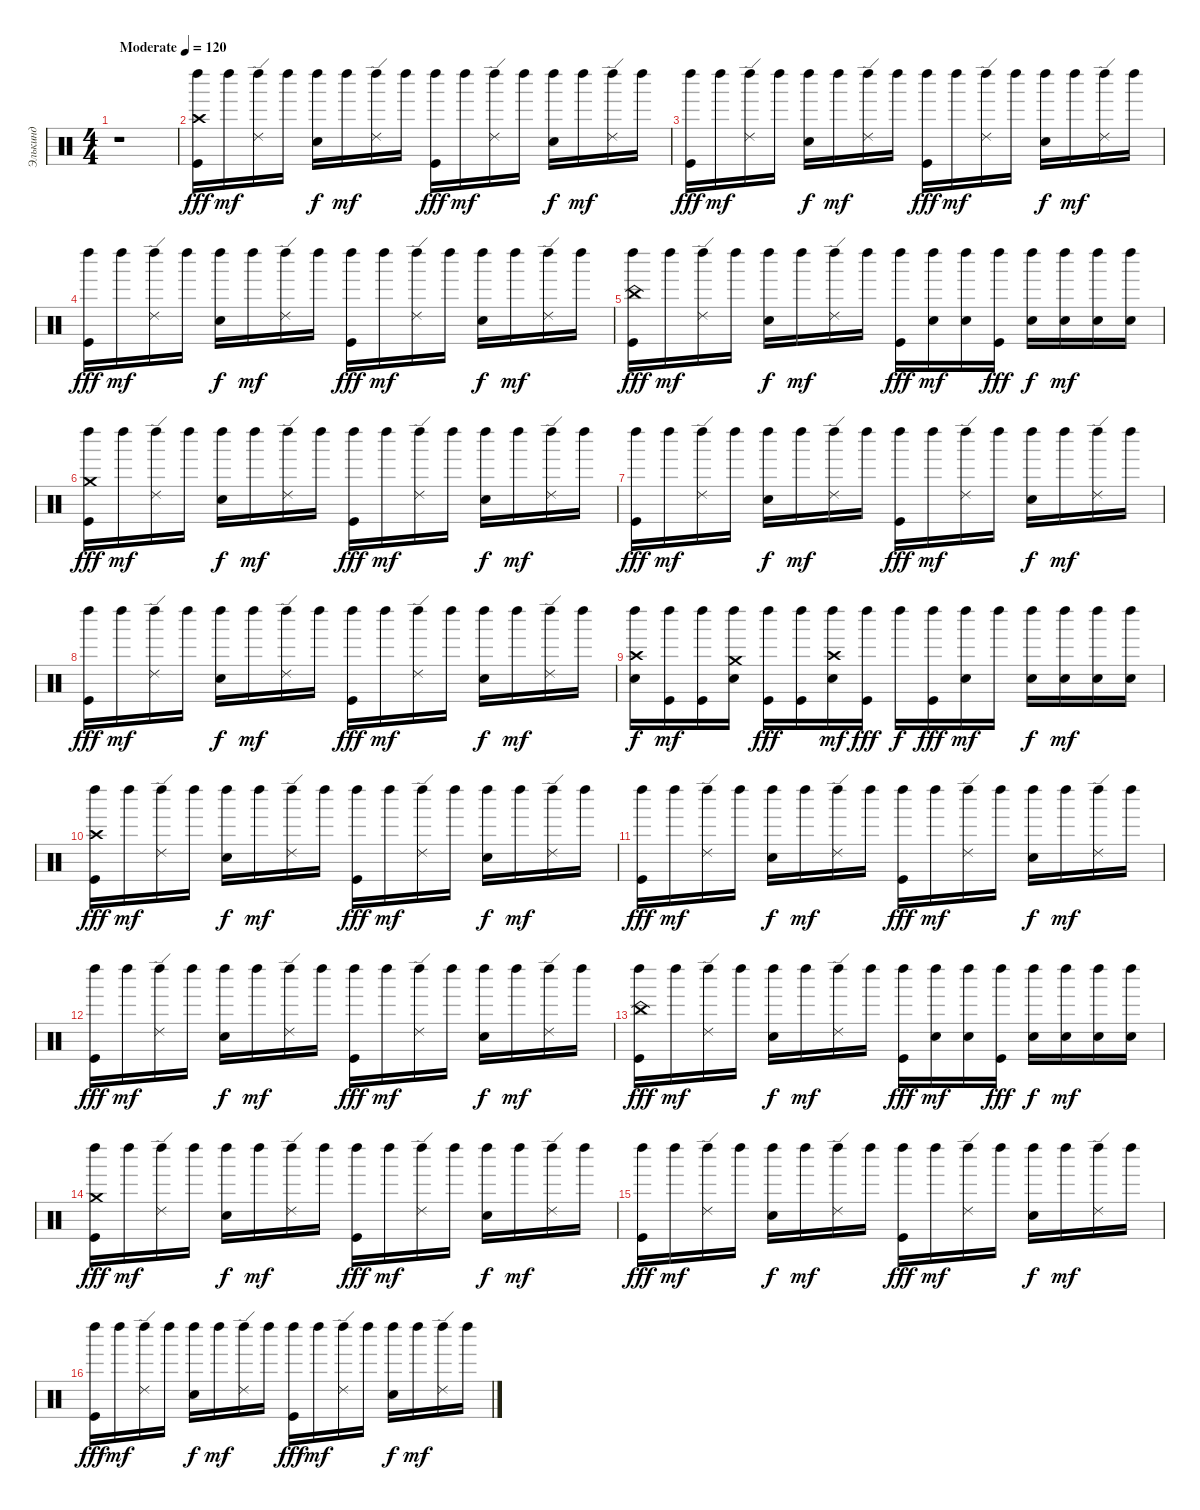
\track ("Элькинд" "Элькинд") {instrument percussion}
\staff {score}
\articulation defaults
\ts (4 4)
\tempo (120 "Moderate")
\clef neutral
\ks c
r.1{dy fff} |
("Left Maraca (hit)" "Crash high (hit)" "Kick (hit)").16 "Left Maraca (hit)".16{dy mf} ("Left Maraca (hit)" "Ride (edge) 2").16 "Left Maraca (hit)".16 ("Left Maraca (hit)" "Electric Snare (hit)").16{dy f} "Left Maraca (hit)".16{dy mf} ("Left Maraca (hit)" "Ride (edge) 2").16 "Left Maraca (hit)".16 ("Left Maraca (hit)" "Kick (hit)").16{dy fff} "Left Maraca (hit)".16{dy mf} ("Left Maraca (hit)" "Ride (edge) 2").16 "Left Maraca (hit)".16 ("Left Maraca (hit)" "Electric Snare (hit)").16{dy f} "Left Maraca (hit)".16{dy mf} ("Left Maraca (hit)" "Ride (edge) 2").16 "Left Maraca (hit)".16 |
("Left Maraca (hit)" "Kick (hit)").16{dy fff} "Left Maraca (hit)".16{dy mf} ("Left Maraca (hit)" "Ride (edge) 2").16 "Left Maraca (hit)".16 ("Left Maraca (hit)" "Electric Snare (hit)").16{dy f} "Left Maraca (hit)".16{dy mf} ("Left Maraca (hit)" "Ride (edge) 2").16 "Left Maraca (hit)".16 ("Left Maraca (hit)" "Kick (hit)").16{dy fff} "Left Maraca (hit)".16{dy mf} ("Left Maraca (hit)" "Ride (edge) 2").16 "Left Maraca (hit)".16 ("Left Maraca (hit)" "Electric Snare (hit)").16{dy f} "Left Maraca (hit)".16{dy mf} ("Left Maraca (hit)" "Ride (edge) 2").16 "Left Maraca (hit)".16 |
("Left Maraca (hit)" "Kick (hit)").16{dy fff} "Left Maraca (hit)".16{dy mf} ("Left Maraca (hit)" "Ride (edge) 2").16 "Left Maraca (hit)".16 ("Left Maraca (hit)" "Electric Snare (hit)").16{dy f} "Left Maraca (hit)".16{dy mf} ("Left Maraca (hit)" "Ride (edge) 2").16 "Left Maraca (hit)".16 ("Left Maraca (hit)" "Kick (hit)").16{dy fff} "Left Maraca (hit)".16{dy mf} ("Left Maraca (hit)" "Ride (edge) 2").16 "Left Maraca (hit)".16 ("Left Maraca (hit)" "Electric Snare (hit)").16{dy f} "Left Maraca (hit)".16{dy mf} ("Left Maraca (hit)" "Ride (edge) 2").16 "Left Maraca (hit)".16 |
("Kick (hit)" "China (hit)" "Left Maraca (hit)").16{dy fff} "Left Maraca (hit)".16{dy mf} ("Left Maraca (hit)" "Ride (edge) 2").16 "Left Maraca (hit)".16 ("Electric Snare (hit)" "Left Maraca (hit)").16{dy f} "Left Maraca (hit)".16{dy mf} ("Ride (edge) 2" "Left Maraca (hit)").16 "Left Maraca (hit)".16 ("Left Maraca (hit)" "Kick (hit)").16{dy fff} ("Electric Snare (hit)" "Left Maraca (hit)").16{dy mf} ("Left Maraca (hit)" "Electric Snare (hit)").16 ("Left Maraca (hit)" "Kick (hit)").16{dy fff} ("Electric Snare (hit)" "Left Maraca (hit)").16{dy f} ("Left Maraca (hit)" "Electric Snare (hit)").16{dy mf} ("Left Maraca (hit)" "Electric Snare (hit)").16 ("Electric Snare (hit)" "Left Maraca (hit)").16 |
("Left Maraca (hit)" "Crash medium (hit)" "Kick (hit)").16{dy fff} "Left Maraca (hit)".16{dy mf} ("Left Maraca (hit)" "Ride (edge) 2").16 "Left Maraca (hit)".16 ("Left Maraca (hit)" "Electric Snare (hit)").16{dy f} "Left Maraca (hit)".16{dy mf} ("Left Maraca (hit)" "Ride (edge) 2").16 "Left Maraca (hit)".16 ("Left Maraca (hit)" "Kick (hit)").16{dy fff} "Left Maraca (hit)".16{dy mf} ("Left Maraca (hit)" "Ride (edge) 2").16 "Left Maraca (hit)".16 ("Left Maraca (hit)" "Electric Snare (hit)").16{dy f} "Left Maraca (hit)".16{dy mf} ("Left Maraca (hit)" "Ride (edge) 2").16 "Left Maraca (hit)".16 |
("Left Maraca (hit)" "Kick (hit)").16{dy fff} "Left Maraca (hit)".16{dy mf} ("Left Maraca (hit)" "Ride (edge) 2").16 "Left Maraca (hit)".16 ("Left Maraca (hit)" "Electric Snare (hit)").16{dy f} "Left Maraca (hit)".16{dy mf} ("Left Maraca (hit)" "Ride (edge) 2").16 "Left Maraca (hit)".16 ("Left Maraca (hit)" "Kick (hit)").16{dy fff} "Left Maraca (hit)".16{dy mf} ("Left Maraca (hit)" "Ride (edge) 2").16 "Left Maraca (hit)".16 ("Left Maraca (hit)" "Electric Snare (hit)").16{dy f} "Left Maraca (hit)".16{dy mf} ("Left Maraca (hit)" "Ride (edge) 2").16 "Left Maraca (hit)".16 |
("Left Maraca (hit)" "Kick (hit)").16{dy fff} "Left Maraca (hit)".16{dy mf} ("Left Maraca (hit)" "Ride (edge) 2").16 "Left Maraca (hit)".16 ("Left Maraca (hit)" "Electric Snare (hit)").16{dy f} "Left Maraca (hit)".16{dy mf} ("Left Maraca (hit)" "Ride (edge) 2").16 "Left Maraca (hit)".16 ("Left Maraca (hit)" "Kick (hit)").16{dy fff} "Left Maraca (hit)".16{dy mf} ("Left Maraca (hit)" "Ride (edge) 2").16 "Left Maraca (hit)".16 ("Left Maraca (hit)" "Electric Snare (hit)").16{dy f} "Left Maraca (hit)".16{dy mf} ("Left Maraca (hit)" "Ride (edge) 2").16 "Left Maraca (hit)".16 |
("Crash high (hit)" "Electric Snare (hit)" "Left Maraca (hit)").16{dy f} ("Kick (hit)" "Left Maraca (hit)").16{dy mf} ("Kick (hit)" "Left Maraca (hit)").16 ("Left Maraca (hit)" "Crash medium (hit)" "Electric Snare (hit)").16 ("Kick (hit)" "Left Maraca (hit)").16{dy fff} ("Left Maraca (hit)" "Kick (hit)").16 ("Left Maraca (hit)" "Crash high (hit)" "Electric Snare (hit)").16{dy mf} ("Left Maraca (hit)" "Kick (hit)").16{dy fff} "Left Maraca (hit)".16{dy f} ("Left Maraca (hit)" "Kick (hit)").16{dy fff} ("Electric Snare (hit)" "Left Maraca (hit)").16{dy mf} "Left Maraca (hit)".16 ("Left Maraca (hit)" "Electric Snare (hit)").16{dy f} ("Electric Snare (hit)" "Left Maraca (hit)").16{dy mf} ("Electric Snare (hit)" "Left Maraca (hit)").16 ("Electric Snare (hit)" "Left Maraca (hit)").16 |
("Left Maraca (hit)" "Crash high (hit)" "Kick (hit)").16{dy fff} "Left Maraca (hit)".16{dy mf} ("Left Maraca (hit)" "Ride (edge) 2").16 "Left Maraca (hit)".16 ("Left Maraca (hit)" "Electric Snare (hit)").16{dy f} "Left Maraca (hit)".16{dy mf} ("Left Maraca (hit)" "Ride (edge) 2").16 "Left Maraca (hit)".16 ("Left Maraca (hit)" "Kick (hit)").16{dy fff} "Left Maraca (hit)".16{dy mf} ("Left Maraca (hit)" "Ride (edge) 2").16 "Left Maraca (hit)".16 ("Left Maraca (hit)" "Electric Snare (hit)").16{dy f} "Left Maraca (hit)".16{dy mf} ("Left Maraca (hit)" "Ride (edge) 2").16 "Left Maraca (hit)".16 |
("Left Maraca (hit)" "Kick (hit)").16{dy fff} "Left Maraca (hit)".16{dy mf} ("Left Maraca (hit)" "Ride (edge) 2").16 "Left Maraca (hit)".16 ("Left Maraca (hit)" "Electric Snare (hit)").16{dy f} "Left Maraca (hit)".16{dy mf} ("Left Maraca (hit)" "Ride (edge) 2").16 "Left Maraca (hit)".16 ("Left Maraca (hit)" "Kick (hit)").16{dy fff} "Left Maraca (hit)".16{dy mf} ("Left Maraca (hit)" "Ride (edge) 2").16 "Left Maraca (hit)".16 ("Left Maraca (hit)" "Electric Snare (hit)").16{dy f} "Left Maraca (hit)".16{dy mf} ("Left Maraca (hit)" "Ride (edge) 2").16 "Left Maraca (hit)".16 |
("Left Maraca (hit)" "Kick (hit)").16{dy fff} "Left Maraca (hit)".16{dy mf} ("Left Maraca (hit)" "Ride (edge) 2").16 "Left Maraca (hit)".16 ("Left Maraca (hit)" "Electric Snare (hit)").16{dy f} "Left Maraca (hit)".16{dy mf} ("Left Maraca (hit)" "Ride (edge) 2").16 "Left Maraca (hit)".16 ("Left Maraca (hit)" "Kick (hit)").16{dy fff} "Left Maraca (hit)".16{dy mf} ("Left Maraca (hit)" "Ride (edge) 2").16 "Left Maraca (hit)".16 ("Left Maraca (hit)" "Electric Snare (hit)").16{dy f} "Left Maraca (hit)".16{dy mf} ("Left Maraca (hit)" "Ride (edge) 2").16 "Left Maraca (hit)".16 |
("Kick (hit)" "China (hit)" "Left Maraca (hit)").16{dy fff} "Left Maraca (hit)".16{dy mf} ("Left Maraca (hit)" "Ride (edge) 2").16 "Left Maraca (hit)".16 ("Electric Snare (hit)" "Left Maraca (hit)").16{dy f} "Left Maraca (hit)".16{dy mf} ("Ride (edge) 2" "Left Maraca (hit)").16 "Left Maraca (hit)".16 ("Left Maraca (hit)" "Kick (hit)").16{dy fff} ("Electric Snare (hit)" "Left Maraca (hit)").16{dy mf} ("Left Maraca (hit)" "Electric Snare (hit)").16 ("Left Maraca (hit)" "Kick (hit)").16{dy fff} ("Electric Snare (hit)" "Left Maraca (hit)").16{dy f} ("Left Maraca (hit)" "Electric Snare (hit)").16{dy mf} ("Left Maraca (hit)" "Electric Snare (hit)").16 ("Electric Snare (hit)" "Left Maraca (hit)").16 |
("Left Maraca (hit)" "Crash medium (hit)" "Kick (hit)").16{dy fff} "Left Maraca (hit)".16{dy mf} ("Left Maraca (hit)" "Ride (edge) 2").16 "Left Maraca (hit)".16 ("Left Maraca (hit)" "Electric Snare (hit)").16{dy f} "Left Maraca (hit)".16{dy mf} ("Left Maraca (hit)" "Ride (edge) 2").16 "Left Maraca (hit)".16 ("Left Maraca (hit)" "Kick (hit)").16{dy fff} "Left Maraca (hit)".16{dy mf} ("Left Maraca (hit)" "Ride (edge) 2").16 "Left Maraca (hit)".16 ("Left Maraca (hit)" "Electric Snare (hit)").16{dy f} "Left Maraca (hit)".16{dy mf} ("Left Maraca (hit)" "Ride (edge) 2").16 "Left Maraca (hit)".16 |
("Left Maraca (hit)" "Kick (hit)").16{dy fff} "Left Maraca (hit)".16{dy mf} ("Left Maraca (hit)" "Ride (edge) 2").16 "Left Maraca (hit)".16 ("Left Maraca (hit)" "Electric Snare (hit)").16{dy f} "Left Maraca (hit)".16{dy mf} ("Left Maraca (hit)" "Ride (edge) 2").16 "Left Maraca (hit)".16 ("Left Maraca (hit)" "Kick (hit)").16{dy fff} "Left Maraca (hit)".16{dy mf} ("Left Maraca (hit)" "Ride (edge) 2").16 "Left Maraca (hit)".16 ("Left Maraca (hit)" "Electric Snare (hit)").16{dy f} "Left Maraca (hit)".16{dy mf} ("Left Maraca (hit)" "Ride (edge) 2").16 "Left Maraca (hit)".16 |
("Left Maraca (hit)" "Kick (hit)").16{dy fff} "Left Maraca (hit)".16{dy mf} ("Left Maraca (hit)" "Ride (edge) 2").16 "Left Maraca (hit)".16 ("Left Maraca (hit)" "Electric Snare (hit)").16{dy f} "Left Maraca (hit)".16{dy mf} ("Left Maraca (hit)" "Ride (edge) 2").16 "Left Maraca (hit)".16 ("Left Maraca (hit)" "Kick (hit)").16{dy fff} "Left Maraca (hit)".16{dy mf} ("Left Maraca (hit)" "Ride (edge) 2").16 "Left Maraca (hit)".16 ("Left Maraca (hit)" "Electric Snare (hit)").16{dy f} "Left Maraca (hit)".16{dy mf} ("Left Maraca (hit)" "Ride (edge) 2").16 "Left Maraca (hit)".16
